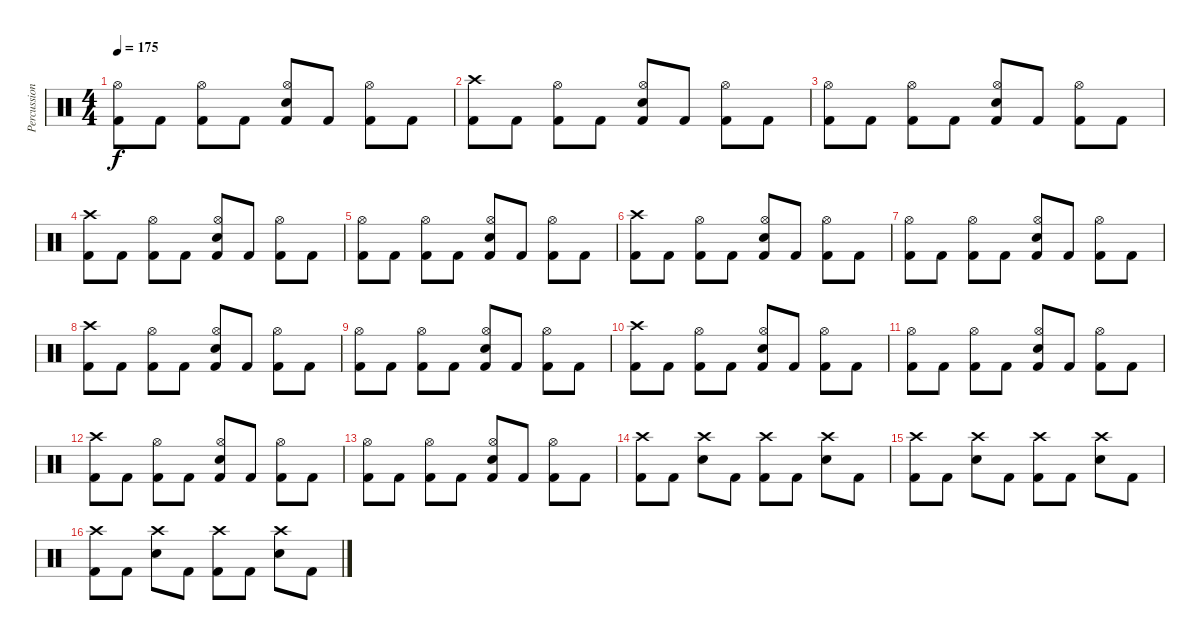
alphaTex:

\track ("Percussion" "Percussion") {instrument percussion}
\staff {score}
\articulation defaults
\ts (4 4)
\tempo 175
\clef neutral
\ks c
("Kick (hit) 2" "Hi-Hat (open)").8{dy f} "Kick (hit) 2".8 ("Kick (hit) 2" "Hi-Hat (open)").8 "Kick (hit) 2".8 ("Kick (hit) 2" "Hi-Hat (open)" "Electric Snare (hit)").8 "Kick (hit) 2".8 ("Kick (hit) 2" "Hi-Hat (open)").8 "Kick (hit) 2".8 |
("Kick (hit) 2" "Crash high (hit)").8 "Kick (hit) 2".8 ("Kick (hit) 2" "Hi-Hat (open)").8 "Kick (hit) 2".8 ("Kick (hit) 2" "Hi-Hat (open)" "Electric Snare (hit)").8 "Kick (hit) 2".8 ("Kick (hit) 2" "Hi-Hat (open)").8 "Kick (hit) 2".8 |
("Kick (hit) 2" "Hi-Hat (open)").8 "Kick (hit) 2".8 ("Kick (hit) 2" "Hi-Hat (open)").8 "Kick (hit) 2".8 ("Kick (hit) 2" "Hi-Hat (open)" "Electric Snare (hit)").8 "Kick (hit) 2".8 ("Kick (hit) 2" "Hi-Hat (open)").8 "Kick (hit) 2".8 |
("Kick (hit) 2" "Crash high (hit)").8 "Kick (hit) 2".8 ("Kick (hit) 2" "Hi-Hat (open)").8 "Kick (hit) 2".8 ("Kick (hit) 2" "Hi-Hat (open)" "Electric Snare (hit)").8 "Kick (hit) 2".8 ("Kick (hit) 2" "Hi-Hat (open)").8 "Kick (hit) 2".8 |
("Kick (hit) 2" "Hi-Hat (open)").8 "Kick (hit) 2".8 ("Kick (hit) 2" "Hi-Hat (open)").8 "Kick (hit) 2".8 ("Kick (hit) 2" "Hi-Hat (open)" "Electric Snare (hit)").8 "Kick (hit) 2".8 ("Kick (hit) 2" "Hi-Hat (open)").8 "Kick (hit) 2".8 |
("Kick (hit) 2" "Crash high (hit)").8 "Kick (hit) 2".8 ("Kick (hit) 2" "Hi-Hat (open)").8 "Kick (hit) 2".8 ("Kick (hit) 2" "Hi-Hat (open)" "Electric Snare (hit)").8 "Kick (hit) 2".8 ("Kick (hit) 2" "Hi-Hat (open)").8 "Kick (hit) 2".8 |
("Kick (hit) 2" "Hi-Hat (open)").8 "Kick (hit) 2".8 ("Kick (hit) 2" "Hi-Hat (open)").8 "Kick (hit) 2".8 ("Kick (hit) 2" "Hi-Hat (open)" "Electric Snare (hit)").8 "Kick (hit) 2".8 ("Kick (hit) 2" "Hi-Hat (open)").8 "Kick (hit) 2".8 |
("Kick (hit) 2" "Crash high (hit)").8 "Kick (hit) 2".8 ("Kick (hit) 2" "Hi-Hat (open)").8 "Kick (hit) 2".8 ("Kick (hit) 2" "Hi-Hat (open)" "Electric Snare (hit)").8 "Kick (hit) 2".8 ("Kick (hit) 2" "Hi-Hat (open)").8 "Kick (hit) 2".8 |
("Kick (hit) 2" "Hi-Hat (open)").8 "Kick (hit) 2".8 ("Kick (hit) 2" "Hi-Hat (open)").8 "Kick (hit) 2".8 ("Kick (hit) 2" "Hi-Hat (open)" "Electric Snare (hit)").8 "Kick (hit) 2".8 ("Kick (hit) 2" "Hi-Hat (open)").8 "Kick (hit) 2".8 |
("Kick (hit) 2" "Crash high (hit)").8 "Kick (hit) 2".8 ("Kick (hit) 2" "Hi-Hat (open)").8 "Kick (hit) 2".8 ("Kick (hit) 2" "Hi-Hat (open)" "Electric Snare (hit)").8 "Kick (hit) 2".8 ("Kick (hit) 2" "Hi-Hat (open)").8 "Kick (hit) 2".8 |
("Kick (hit) 2" "Hi-Hat (open)").8 "Kick (hit) 2".8 ("Kick (hit) 2" "Hi-Hat (open)").8 "Kick (hit) 2".8 ("Kick (hit) 2" "Hi-Hat (open)" "Electric Snare (hit)").8 "Kick (hit) 2".8 ("Kick (hit) 2" "Hi-Hat (open)").8 "Kick (hit) 2".8 |
("Kick (hit) 2" "Crash high (hit)").8 "Kick (hit) 2".8 ("Kick (hit) 2" "Hi-Hat (open)").8 "Kick (hit) 2".8 ("Kick (hit) 2" "Hi-Hat (open)" "Electric Snare (hit)").8 "Kick (hit) 2".8 ("Kick (hit) 2" "Hi-Hat (open)").8 "Kick (hit) 2".8 |
("Kick (hit) 2" "Hi-Hat (open)").8 "Kick (hit) 2".8 ("Kick (hit) 2" "Hi-Hat (open)").8 "Kick (hit) 2".8 ("Kick (hit) 2" "Hi-Hat (open)" "Electric Snare (hit)").8 "Kick (hit) 2".8 ("Kick (hit) 2" "Hi-Hat (open)").8 "Kick (hit) 2".8 |
("Kick (hit) 2" "Crash high (hit)").8 "Kick (hit) 2".8 ("Electric Snare (hit)" "Crash high (hit)").8 "Kick (hit) 2".8 ("Kick (hit) 2" "Crash high (hit)").8 "Kick (hit) 2".8 ("Electric Snare (hit)" "Crash high (hit)").8 "Kick (hit) 2".8 |
("Kick (hit) 2" "Crash high (hit)").8 "Kick (hit) 2".8 ("Electric Snare (hit)" "Crash high (hit)").8 "Kick (hit) 2".8 ("Kick (hit) 2" "Crash high (hit)").8 "Kick (hit) 2".8 ("Electric Snare (hit)" "Crash high (hit)").8 "Kick (hit) 2".8 |
("Kick (hit) 2" "Crash high (hit)").8 "Kick (hit) 2".8 ("Electric Snare (hit)" "Crash high (hit)").8 "Kick (hit) 2".8 ("Kick (hit) 2" "Crash high (hit)").8 "Kick (hit) 2".8 ("Electric Snare (hit)" "Crash high (hit)").8 "Kick (hit) 2".8
